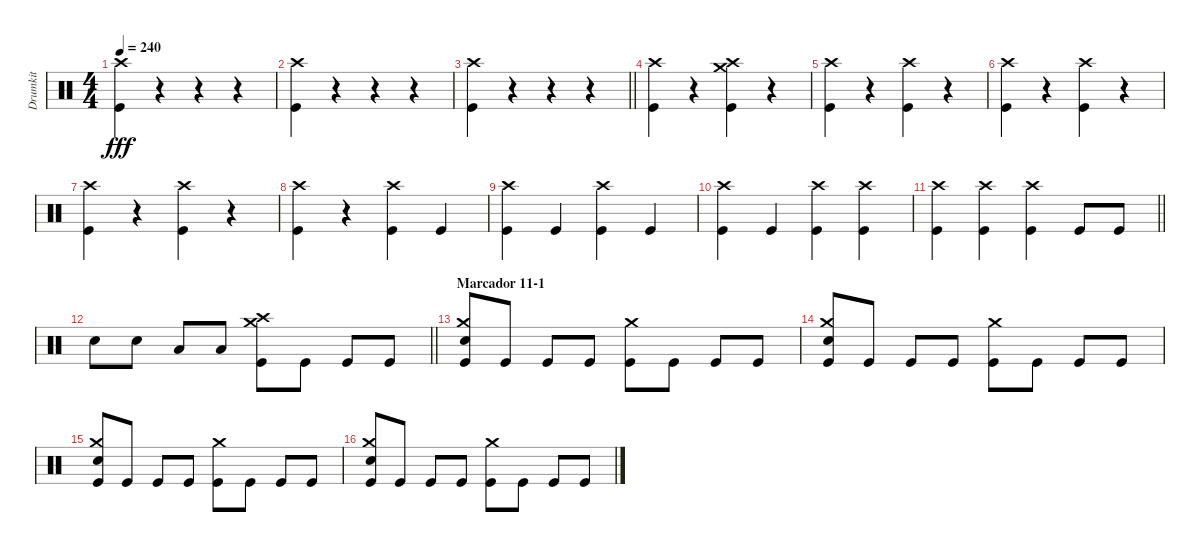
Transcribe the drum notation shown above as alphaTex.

\track ("Drumkit" "Drumkit") {instrument percussion}
\staff {score}
\articulation defaults
\ts (4 4)
\tempo 240
\clef neutral
\ks c
("Crash high (hit)" "Kick (hit)").4{dy fff} r.4 r.4 r.4 |
("Crash high (hit)" "Kick (hit)").4 r.4 r.4 r.4 |
\barLineRight lightlight
("Crash high (hit)" "Kick (hit)").4 r.4 r.4 r.4 |
("Crash high (hit)" "Kick (hit)").4 r.4 ("Crash high (hit)" "Crash medium (hit)" "Kick (hit)").4 r.4 |
("Crash high (hit)" "Kick (hit)").4 r.4 ("Crash high (hit)" "Kick (hit)").4 r.4 |
("Crash high (hit)" "Kick (hit)").4 r.4 ("Crash high (hit)" "Kick (hit)").4 r.4 |
("Crash high (hit)" "Kick (hit)").4 r.4 ("Crash high (hit)" "Kick (hit)").4 r.4 |
("Crash high (hit)" "Kick (hit)").4 r.4 ("Crash high (hit)" "Kick (hit)").4 "Kick (hit)".4 |
("Crash high (hit)" "Kick (hit)").4 "Kick (hit)".4 ("Crash high (hit)" "Kick (hit)").4 "Kick (hit)".4 |
("Crash high (hit)" "Kick (hit)").4 "Kick (hit)".4 ("Crash high (hit)" "Kick (hit)").4 ("Crash high (hit)" "Kick (hit)").4 |
\barLineRight lightlight
("Crash high (hit)" "Kick (hit)").4 ("Crash high (hit)" "Kick (hit)").4 ("Crash high (hit)" "Kick (hit)").4 "Kick (hit)".8 "Kick (hit)".8 |
\barLineRight lightlight "Snare (hit) 2".8 "Snare (hit) 2".8 "Low Tom (hit)".8 "Low Tom (hit)".8
("Crash high (hit)" "Crash medium (hit)" "Kick (hit)").8 "Kick (hit)".8 "Kick (hit)".8 "Kick (hit)".8 |
\section ("" "Marcador 11-1")
("Crash medium (hit)" "Snare (hit) 2" "Kick (hit)").8 "Kick (hit)".8 "Kick (hit)".8 "Kick (hit)".8 ("Crash medium (hit)" "Kick (hit)").8 "Kick (hit)".8 "Kick (hit)".8 "Kick (hit)".8 |
("Crash medium (hit)" "Snare (hit) 2" "Kick (hit)").8 "Kick (hit)".8 "Kick (hit)".8 "Kick (hit)".8 ("Crash medium (hit)" "Kick (hit)").8 "Kick (hit)".8 "Kick (hit)".8 "Kick (hit)".8 |
("Crash medium (hit)" "Snare (hit) 2" "Kick (hit)").8 "Kick (hit)".8 "Kick (hit)".8 "Kick (hit)".8 ("Crash medium (hit)" "Kick (hit)").8 "Kick (hit)".8 "Kick (hit)".8 "Kick (hit)".8 |
("Crash medium (hit)" "Snare (hit) 2" "Kick (hit)").8 "Kick (hit)".8 "Kick (hit)".8 "Kick (hit)".8 ("Crash medium (hit)" "Kick (hit)").8 "Kick (hit)".8 "Kick (hit)".8 "Kick (hit)".8
